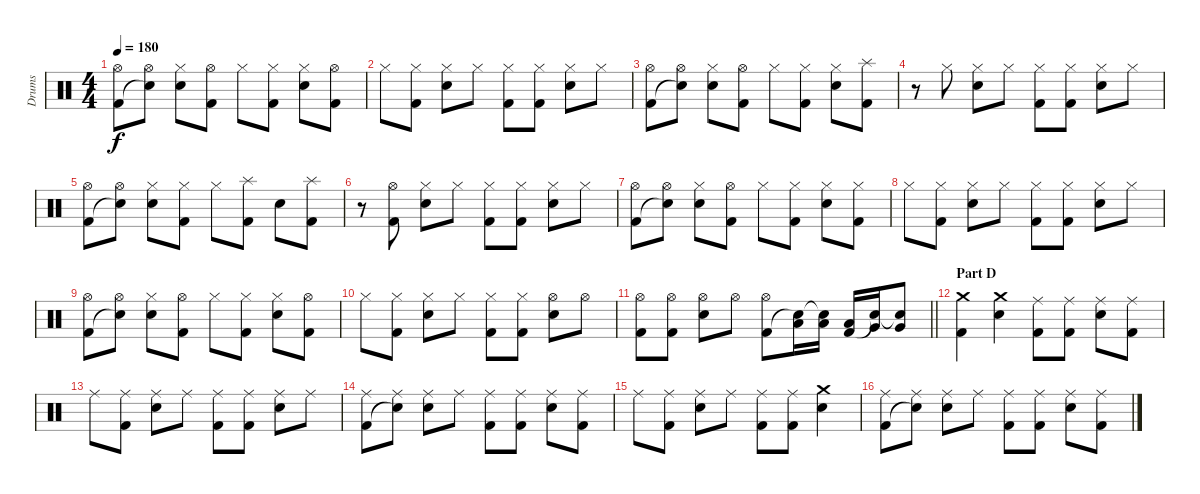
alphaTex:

\track ("Drums" "Drums") {instrument percussion}
\staff {score}
\articulation defaults
\ts (4 4)
\tempo 180
\clef neutral
\ks c
("Hi-Hat (open)" "Kick (hit) 2").8{dy f} ("Hi-Hat (open)" "Snare (hit)"{t}).8 ("Hi-Hat (closed)" "Electric Snare (hit)").8 ("Hi-Hat (open)" "Kick (hit) 2").8 "Hi-Hat (closed)".8 ("Hi-Hat (closed)" "Kick (hit) 2").8 ("Hi-Hat (closed)" "Electric Snare (hit)").8 ("Hi-Hat (open)" "Kick (hit) 2").8 |
"Hi-Hat (closed)".8 ("Hi-Hat (closed)" "Kick (hit) 2").8 ("Hi-Hat (closed)" "Electric Snare (hit)").8 "Hi-Hat (closed)".8 ("Hi-Hat (closed)" "Kick (hit) 2").8 ("Hi-Hat (closed)" "Kick (hit) 2").8 ("Hi-Hat (closed)" "Electric Snare (hit)").8 "Hi-Hat (closed)".8 |
("Hi-Hat (open)" "Kick (hit) 2").8 ("Hi-Hat (open)" "Snare (hit)"{t}).8 ("Hi-Hat (closed)" "Electric Snare (hit)").8 ("Hi-Hat (open)" "Kick (hit) 2").8 "Hi-Hat (closed)".8 ("Hi-Hat (closed)" "Kick (hit) 2").8 ("Hi-Hat (closed)" "Electric Snare (hit)").8 ("Splash (hit)" "Kick (hit) 2").8 |
r.8 "Hi-Hat (closed)".8 ("Hi-Hat (closed)" "Electric Snare (hit)").8 "Hi-Hat (closed)".8 ("Hi-Hat (closed)" "Kick (hit) 2").8 ("Hi-Hat (closed)" "Kick (hit) 2").8 ("Hi-Hat (closed)" "Electric Snare (hit)").8 "Hi-Hat (closed)".8 |
("Hi-Hat (open)" "Kick (hit) 2").8 ("Hi-Hat (open)" "Snare (hit)"{t}).8 ("Hi-Hat (closed)" "Electric Snare (hit)").8 ("Hi-Hat (closed)" "Kick (hit) 2").8 "Hi-Hat (closed)".8 ("Splash (hit)" "Kick (hit) 2").8 "Electric Snare (hit)".8 ("Splash (hit)" "Kick (hit) 2").8 |
r.8 ("Hi-Hat (open)" "Kick (hit) 2").8 ("Hi-Hat (closed)" "Electric Snare (hit)").8 "Hi-Hat (closed)".8 ("Hi-Hat (closed)" "Kick (hit) 2").8 ("Hi-Hat (closed)" "Kick (hit) 2").8 ("Hi-Hat (closed)" "Electric Snare (hit)").8 "Hi-Hat (closed)".8 |
("Hi-Hat (open)" "Kick (hit) 2").8 ("Hi-Hat (open)" "Snare (hit)"{t}).8 ("Hi-Hat (closed)" "Electric Snare (hit)").8 ("Hi-Hat (open)" "Kick (hit) 2").8 "Hi-Hat (closed)".8 ("Hi-Hat (closed)" "Kick (hit) 2").8 ("Hi-Hat (closed)" "Electric Snare (hit)").8 ("Hi-Hat (closed)" "Kick (hit) 2").8 |
"Hi-Hat (closed)".8 ("Hi-Hat (closed)" "Kick (hit) 2").8 ("Hi-Hat (closed)" "Electric Snare (hit)").8 "Hi-Hat (closed)".8 ("Hi-Hat (closed)" "Kick (hit) 2").8 ("Hi-Hat (closed)" "Kick (hit) 2").8 ("Hi-Hat (closed)" "Electric Snare (hit)").8 "Hi-Hat (closed)".8 |
("Hi-Hat (open)" "Kick (hit) 2").8 ("Hi-Hat (open)" "Snare (hit)"{t}).8 ("Hi-Hat (closed)" "Electric Snare (hit)").8 ("Hi-Hat (open)" "Kick (hit) 2").8 "Hi-Hat (closed)".8 ("Hi-Hat (closed)" "Kick (hit) 2").8 ("Hi-Hat (closed)" "Electric Snare (hit)").8 ("Hi-Hat (open)" "Kick (hit) 2").8 |
"Hi-Hat (closed)".8 ("Hi-Hat (closed)" "Kick (hit) 2").8 ("Hi-Hat (closed)" "Electric Snare (hit)").8 "Hi-Hat (closed)".8 ("Hi-Hat (closed)" "Kick (hit) 2").8 ("Hi-Hat (closed)" "Kick (hit) 2").8 ("Hi-Hat (open)" "Electric Snare (hit)").8 "Hi-Hat (open)".8 |
\barLineRight lightlight
("Hi-Hat (open)" "Kick (hit) 2").8 ("Hi-Hat (open)" "Kick (hit) 2").8 ("Hi-Hat (open)" "Electric Snare (hit)").8 "Hi-Hat (open)".8 ("Hi-Hat (open)" "Kick (hit) 2").8 ("Low Tom (hit)" "Snare (hit)"{t}).16 ("Low Tom (hit)" "Snare (hit)"{t}).16 ("Low Tom (hit)" "Kick (hit) 2").16 ("Very Low Tom (hit)" "Snare (hit)"{t}).16 ("Very Low Tom (hit)" "Snare (hit)"{t}).8 |
\section ("" "Part D")
("Crash medium (hit)" "Kick (hit) 2").4 ("Crash medium (hit)" "Electric Snare (hit)").4 ("Ride (middle)" "Kick (hit) 2").8 ("Ride (middle)" "Kick (hit) 2").8 ("Ride (middle)" "Electric Snare (hit)").8 ("Ride (middle)" "Kick (hit) 2").8 |
"Ride (middle)".8 ("Ride (middle)" "Kick (hit) 2").8 ("Ride (middle)" "Electric Snare (hit)").8 "Ride (middle)".8 ("Ride (middle)" "Kick (hit) 2").8 ("Ride (middle)" "Kick (hit) 2").8 ("Ride (middle)" "Electric Snare (hit)").8 "Ride (middle)".8 |
("Ride (middle)" "Kick (hit) 2").8 ("Ride (middle)" "Snare (hit)"{t}).8 ("Ride (middle)" "Electric Snare (hit)").8 "Ride (middle)".8 ("Ride (middle)" "Kick (hit) 2").8 ("Ride (middle)" "Kick (hit) 2").8 ("Ride (middle)" "Electric Snare (hit)").8 ("Ride (middle)" "Kick (hit) 2").8 |
"Ride (middle)".8 ("Ride (middle)" "Kick (hit) 2").8 ("Ride (middle)" "Electric Snare (hit)").8 "Ride (middle)".8 ("Ride (middle)" "Kick (hit) 2").8 ("Ride (middle)" "Kick (hit) 2").8 ("Crash medium (hit)" "Electric Snare (hit)").4 |
("Ride (middle)" "Kick (hit) 2").8 ("Ride (middle)" "Snare (hit)"{t}).8 ("Ride (middle)" "Electric Snare (hit)").8 "Ride (middle)".8 ("Ride (middle)" "Kick (hit) 2").8 ("Ride (middle)" "Kick (hit) 2").8 ("Ride (middle)" "Electric Snare (hit)").8 ("Ride (middle)" "Kick (hit) 2").8
